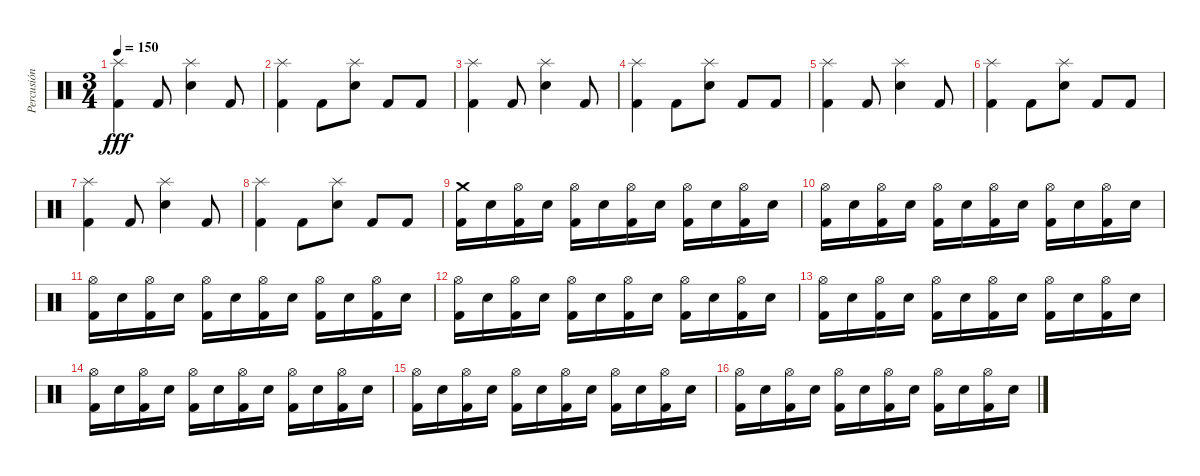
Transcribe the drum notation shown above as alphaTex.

\track ("Percusión" "Percusión") {instrument percussion}
\staff {score}
\articulation defaults
\ts (3 4)
\tempo 150
\clef neutral
\ks c
("Splash (hit)" "Kick (hit) 2").4{dy fff} "Kick (hit) 2".8 ("Splash (hit)" "Snare (hit) 2").4 "Kick (hit) 2".8 |
("Splash (hit)" "Kick (hit) 2").4 "Kick (hit) 2".8 ("Splash (hit)" "Snare (hit) 2").8 "Kick (hit) 2".8 "Kick (hit) 2".8 |
("Splash (hit)" "Kick (hit) 2").4 "Kick (hit) 2".8 ("Splash (hit)" "Snare (hit) 2").4 "Kick (hit) 2".8 |
("Splash (hit)" "Kick (hit) 2").4 "Kick (hit) 2".8 ("Splash (hit)" "Snare (hit) 2").8 "Kick (hit) 2".8 "Kick (hit) 2".8 |
("Splash (hit)" "Kick (hit) 2").4 "Kick (hit) 2".8 ("Splash (hit)" "Snare (hit) 2").4 "Kick (hit) 2".8 |
("Splash (hit)" "Kick (hit) 2").4 "Kick (hit) 2".8 ("Splash (hit)" "Snare (hit) 2").8 "Kick (hit) 2".8 "Kick (hit) 2".8 |
("Splash (hit)" "Kick (hit) 2").4 "Kick (hit) 2".8 ("Splash (hit)" "Snare (hit) 2").4 "Kick (hit) 2".8 |
("Splash (hit)" "Kick (hit) 2").4 "Kick (hit) 2".8 ("Splash (hit)" "Snare (hit) 2").8 "Kick (hit) 2".8 "Kick (hit) 2".8 |
("Crash medium (hit)" "Kick (hit) 2").16 "Snare (hit) 2".16 ("Hi-Hat (open)" "Kick (hit) 2").16 "Snare (hit) 2".16 ("Hi-Hat (open)" "Kick (hit) 2").16 "Snare (hit) 2".16 ("Hi-Hat (open)" "Kick (hit) 2").16 "Snare (hit) 2".16 ("Hi-Hat (open)" "Kick (hit) 2").16 "Snare (hit) 2".16 ("Hi-Hat (open)" "Kick (hit) 2").16 "Snare (hit) 2".16 |
("Hi-Hat (open)" "Kick (hit) 2").16 "Snare (hit) 2".16 ("Hi-Hat (open)" "Kick (hit) 2").16 "Snare (hit) 2".16 ("Hi-Hat (open)" "Kick (hit) 2").16 "Snare (hit) 2".16 ("Hi-Hat (open)" "Kick (hit) 2").16 "Snare (hit) 2".16 ("Hi-Hat (open)" "Kick (hit) 2").16 "Snare (hit) 2".16 ("Hi-Hat (open)" "Kick (hit) 2").16 "Snare (hit) 2".16 |
("Hi-Hat (open)" "Kick (hit) 2").16 "Snare (hit) 2".16 ("Hi-Hat (open)" "Kick (hit) 2").16 "Snare (hit) 2".16 ("Hi-Hat (open)" "Kick (hit) 2").16 "Snare (hit) 2".16 ("Hi-Hat (open)" "Kick (hit) 2").16 "Snare (hit) 2".16 ("Hi-Hat (open)" "Kick (hit) 2").16 "Snare (hit) 2".16 ("Hi-Hat (open)" "Kick (hit) 2").16 "Snare (hit) 2".16 |
("Hi-Hat (open)" "Kick (hit) 2").16 "Snare (hit) 2".16 ("Hi-Hat (open)" "Kick (hit) 2").16 "Snare (hit) 2".16 ("Hi-Hat (open)" "Kick (hit) 2").16 "Snare (hit) 2".16 ("Hi-Hat (open)" "Kick (hit) 2").16 "Snare (hit) 2".16 ("Hi-Hat (open)" "Kick (hit) 2").16 "Snare (hit) 2".16 ("Hi-Hat (open)" "Kick (hit) 2").16 "Snare (hit) 2".16 |
("Hi-Hat (open)" "Kick (hit) 2").16 "Snare (hit) 2".16 ("Hi-Hat (open)" "Kick (hit) 2").16 "Snare (hit) 2".16 ("Hi-Hat (open)" "Kick (hit) 2").16 "Snare (hit) 2".16 ("Hi-Hat (open)" "Kick (hit) 2").16 "Snare (hit) 2".16 ("Hi-Hat (open)" "Kick (hit) 2").16 "Snare (hit) 2".16 ("Hi-Hat (open)" "Kick (hit) 2").16 "Snare (hit) 2".16 |
("Hi-Hat (open)" "Kick (hit) 2").16 "Snare (hit) 2".16 ("Hi-Hat (open)" "Kick (hit) 2").16 "Snare (hit) 2".16 ("Hi-Hat (open)" "Kick (hit) 2").16 "Snare (hit) 2".16 ("Hi-Hat (open)" "Kick (hit) 2").16 "Snare (hit) 2".16 ("Hi-Hat (open)" "Kick (hit) 2").16 "Snare (hit) 2".16 ("Hi-Hat (open)" "Kick (hit) 2").16 "Snare (hit) 2".16 |
("Hi-Hat (open)" "Kick (hit) 2").16 "Snare (hit) 2".16 ("Hi-Hat (open)" "Kick (hit) 2").16 "Snare (hit) 2".16 ("Hi-Hat (open)" "Kick (hit) 2").16 "Snare (hit) 2".16 ("Hi-Hat (open)" "Kick (hit) 2").16 "Snare (hit) 2".16 ("Hi-Hat (open)" "Kick (hit) 2").16 "Snare (hit) 2".16 ("Hi-Hat (open)" "Kick (hit) 2").16 "Snare (hit) 2".16 |
("Hi-Hat (open)" "Kick (hit) 2").16 "Snare (hit) 2".16 ("Hi-Hat (open)" "Kick (hit) 2").16 "Snare (hit) 2".16 ("Hi-Hat (open)" "Kick (hit) 2").16 "Snare (hit) 2".16 ("Hi-Hat (open)" "Kick (hit) 2").16 "Snare (hit) 2".16 ("Hi-Hat (open)" "Kick (hit) 2").16 "Snare (hit) 2".16 ("Hi-Hat (open)" "Kick (hit) 2").16 "Snare (hit) 2".16
